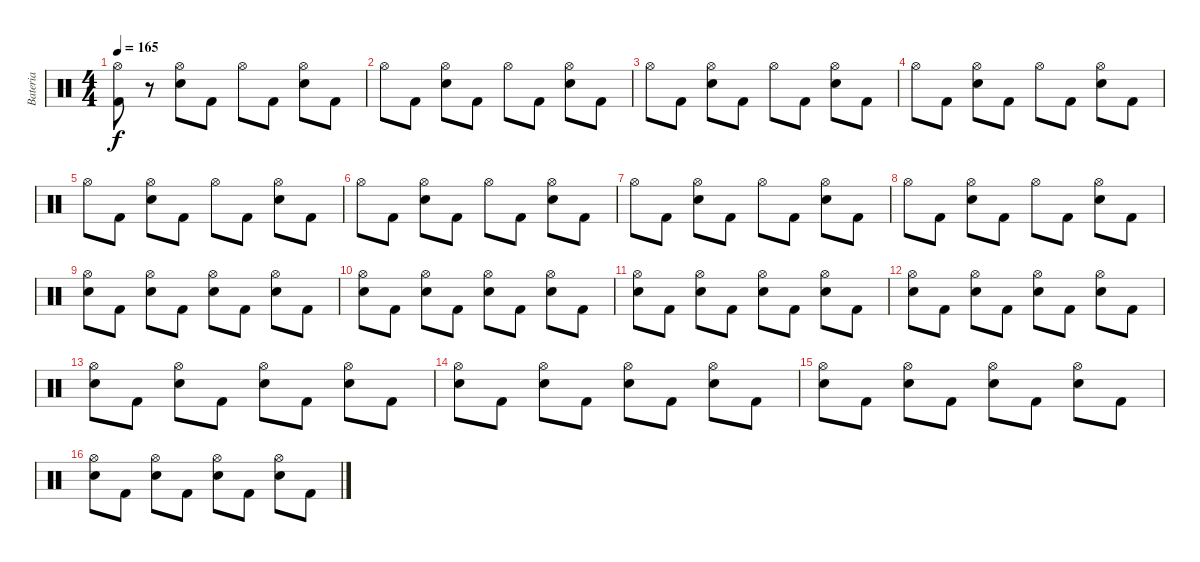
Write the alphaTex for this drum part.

\track ("Bateria" "Bateria") {instrument percussion}
\staff {score}
\articulation defaults
\ts (4 4)
\tempo 165
\clef neutral
\ks c
("Hi-Hat (open)" "Kick (hit) 2").8{dy f} r.8 ("Hi-Hat (open)" "Snare (hit) 2").8 "Kick (hit) 2".8 "Hi-Hat (open)".8 "Kick (hit) 2".8 ("Hi-Hat (open)" "Snare (hit) 2").8 "Kick (hit) 2".8 |
"Hi-Hat (open)".8 "Kick (hit) 2".8 ("Hi-Hat (open)" "Snare (hit) 2").8 "Kick (hit) 2".8 "Hi-Hat (open)".8 "Kick (hit) 2".8 ("Hi-Hat (open)" "Snare (hit) 2").8 "Kick (hit) 2".8 |
"Hi-Hat (open)".8 "Kick (hit) 2".8 ("Hi-Hat (open)" "Snare (hit) 2").8 "Kick (hit) 2".8 "Hi-Hat (open)".8 "Kick (hit) 2".8 ("Hi-Hat (open)" "Snare (hit) 2").8 "Kick (hit) 2".8 |
"Hi-Hat (open)".8 "Kick (hit) 2".8 ("Hi-Hat (open)" "Snare (hit) 2").8 "Kick (hit) 2".8 "Hi-Hat (open)".8 "Kick (hit) 2".8 ("Hi-Hat (open)" "Snare (hit) 2").8 "Kick (hit) 2".8 |
"Hi-Hat (open)".8 "Kick (hit) 2".8 ("Hi-Hat (open)" "Snare (hit) 2").8 "Kick (hit) 2".8 "Hi-Hat (open)".8 "Kick (hit) 2".8 ("Hi-Hat (open)" "Snare (hit) 2").8 "Kick (hit) 2".8 |
"Hi-Hat (open)".8 "Kick (hit) 2".8 ("Hi-Hat (open)" "Snare (hit) 2").8 "Kick (hit) 2".8 "Hi-Hat (open)".8 "Kick (hit) 2".8 ("Hi-Hat (open)" "Snare (hit) 2").8 "Kick (hit) 2".8 |
"Hi-Hat (open)".8 "Kick (hit) 2".8 ("Hi-Hat (open)" "Snare (hit) 2").8 "Kick (hit) 2".8 "Hi-Hat (open)".8 "Kick (hit) 2".8 ("Hi-Hat (open)" "Snare (hit) 2").8 "Kick (hit) 2".8 |
"Hi-Hat (open)".8 "Kick (hit) 2".8 ("Hi-Hat (open)" "Snare (hit) 2").8 "Kick (hit) 2".8 "Hi-Hat (open)".8 "Kick (hit) 2".8 ("Hi-Hat (open)" "Snare (hit) 2").8 "Kick (hit) 2".8 |
("Hi-Hat (open)" "Snare (hit) 2").8 "Kick (hit) 2".8 ("Hi-Hat (open)" "Snare (hit) 2").8 "Kick (hit) 2".8 ("Hi-Hat (open)" "Snare (hit) 2").8 "Kick (hit) 2".8 ("Hi-Hat (open)" "Snare (hit) 2").8 "Kick (hit) 2".8 |
("Hi-Hat (open)" "Snare (hit) 2").8 "Kick (hit) 2".8 ("Hi-Hat (open)" "Snare (hit) 2").8 "Kick (hit) 2".8 ("Hi-Hat (open)" "Snare (hit) 2").8 "Kick (hit) 2".8 ("Hi-Hat (open)" "Snare (hit) 2").8 "Kick (hit) 2".8 |
("Hi-Hat (open)" "Snare (hit) 2").8 "Kick (hit) 2".8 ("Hi-Hat (open)" "Snare (hit) 2").8 "Kick (hit) 2".8 ("Hi-Hat (open)" "Snare (hit) 2").8 "Kick (hit) 2".8 ("Hi-Hat (open)" "Snare (hit) 2").8 "Kick (hit) 2".8 |
("Hi-Hat (open)" "Snare (hit) 2").8 "Kick (hit) 2".8 ("Hi-Hat (open)" "Snare (hit) 2").8 "Kick (hit) 2".8 ("Hi-Hat (open)" "Snare (hit) 2").8 "Kick (hit) 2".8 ("Hi-Hat (open)" "Snare (hit) 2").8 "Kick (hit) 2".8 |
("Hi-Hat (open)" "Snare (hit) 2").8 "Kick (hit) 2".8 ("Hi-Hat (open)" "Snare (hit) 2").8 "Kick (hit) 2".8 ("Hi-Hat (open)" "Snare (hit) 2").8 "Kick (hit) 2".8 ("Hi-Hat (open)" "Snare (hit) 2").8 "Kick (hit) 2".8 |
("Hi-Hat (open)" "Snare (hit) 2").8 "Kick (hit) 2".8 ("Hi-Hat (open)" "Snare (hit) 2").8 "Kick (hit) 2".8 ("Hi-Hat (open)" "Snare (hit) 2").8 "Kick (hit) 2".8 ("Hi-Hat (open)" "Snare (hit) 2").8 "Kick (hit) 2".8 |
("Hi-Hat (open)" "Snare (hit) 2").8 "Kick (hit) 2".8 ("Hi-Hat (open)" "Snare (hit) 2").8 "Kick (hit) 2".8 ("Hi-Hat (open)" "Snare (hit) 2").8 "Kick (hit) 2".8 ("Hi-Hat (open)" "Snare (hit) 2").8 "Kick (hit) 2".8 |
("Hi-Hat (open)" "Snare (hit) 2").8 "Kick (hit) 2".8 ("Hi-Hat (open)" "Snare (hit) 2").8 "Kick (hit) 2".8 ("Hi-Hat (open)" "Snare (hit) 2").8 "Kick (hit) 2".8 ("Hi-Hat (open)" "Snare (hit) 2").8 "Kick (hit) 2".8
